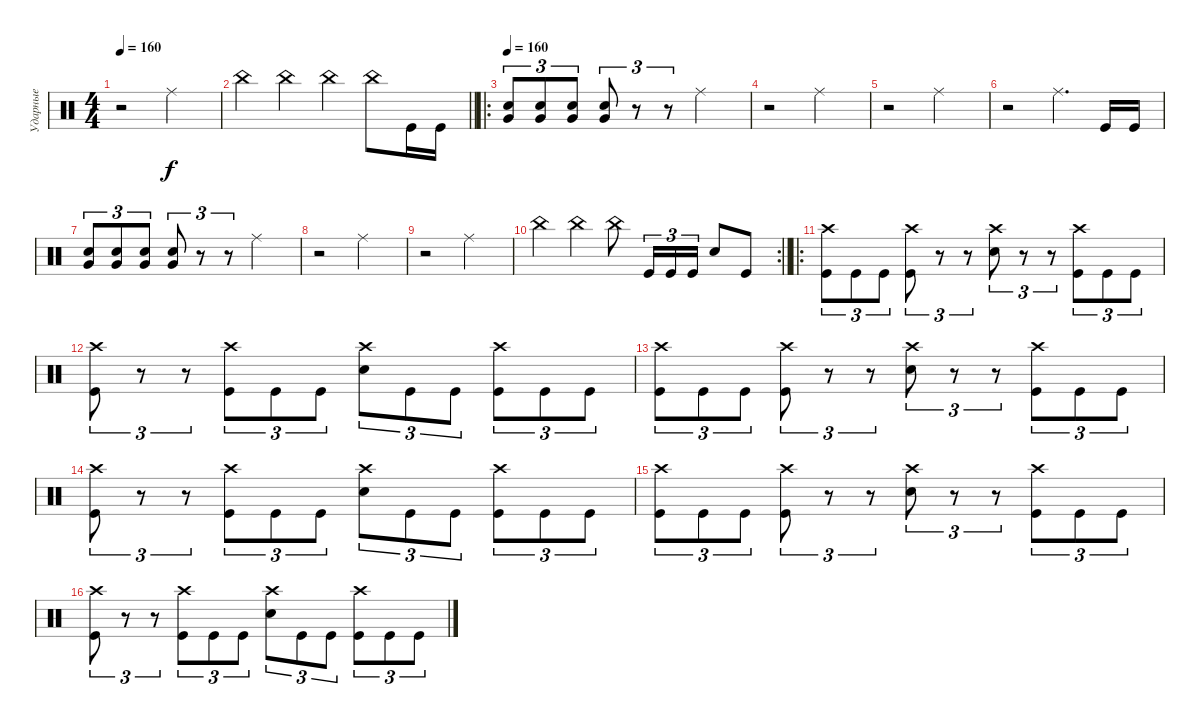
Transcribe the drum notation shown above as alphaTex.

\track ("Ударные" "Ударные") {instrument percussion}
\staff {score}
\articulation defaults
\ts (4 4)
\tempo 160
\clef neutral
\ks c
r.2{dy f} "Ride (middle)".2 |
\barLineRight lightlight "China (hit)".4 "China (hit)".4 "China (hit)".4 "China (hit)".8 "Kick (hit)".16 "Kick (hit)".16
|
\ro
\tempo 160
("Very Low Tom (hit)" "Snare (hit) 2").8{tu (3 2)} ("Very Low Tom (hit)" "Snare (hit) 2").8{tu (3 2)} ("Very Low Tom (hit)" "Snare (hit) 2").8{tu (3 2)} ("Very Low Tom (hit)" "Snare (hit) 2").8{tu (3 2)} r.8{tu (3 2)} r.8{tu (3 2)} "Ride (middle)".2 |
r.2 "Ride (middle)".2 |
r.2 "Ride (middle)".2 |
r.2 "Ride (middle)".4{d} "Kick (hit)".16 "Kick (hit)".16 |
("Very Low Tom (hit)" "Snare (hit) 2").8{tu (3 2)} ("Very Low Tom (hit)" "Snare (hit) 2").8{tu (3 2)} ("Very Low Tom (hit)" "Snare (hit) 2").8{tu (3 2)} ("Very Low Tom (hit)" "Snare (hit) 2").8{tu (3 2)} r.8{tu (3 2)} r.8{tu (3 2)} "Ride (middle)".2 |
r.2 "Ride (middle)".2 |
r.2 "Ride (middle)".2 |
\rc 2
\barLineRight lightlight "China (hit)".4 "China (hit)".4 "China (hit)".8 "Kick (hit)".16{tu (3 2)} "Kick (hit)".16{tu (3 2)} "Kick (hit)".16{tu (3 2)} "Snare (hit) 2".8 "Kick (hit)".8
|
\ro
("Crash high (hit)" "Kick (hit)").8{tu (3 2)} "Kick (hit)".8{tu (3 2)} "Kick (hit)".8{tu (3 2)} ("Crash high (hit)" "Kick (hit)").8{tu (3 2)} r.8{tu (3 2)} r.8{tu (3 2)} ("Crash high (hit)" "Snare (hit) 2").8{tu (3 2)} r.8{tu (3 2)} r.8{tu (3 2)} ("Crash high (hit)" "Kick (hit)").8{tu (3 2)} "Kick (hit)".8{tu (3 2)} "Kick (hit)".8{tu (3 2)} |
("Crash high (hit)" "Kick (hit)").8{tu (3 2)} r.8{tu (3 2)} r.8{tu (3 2)} ("Crash high (hit)" "Kick (hit)").8{tu (3 2)} "Kick (hit)".8{tu (3 2)} "Kick (hit)".8{tu (3 2)} ("Crash high (hit)" "Snare (hit) 2").8{tu (3 2)} "Kick (hit)".8{tu (3 2)} "Kick (hit)".8{tu (3 2)} ("Crash high (hit)" "Kick (hit)").8{tu (3 2)} "Kick (hit)".8{tu (3 2)} "Kick (hit)".8{tu (3 2)} |
("Crash high (hit)" "Kick (hit)").8{tu (3 2)} "Kick (hit)".8{tu (3 2)} "Kick (hit)".8{tu (3 2)} ("Crash high (hit)" "Kick (hit)").8{tu (3 2)} r.8{tu (3 2)} r.8{tu (3 2)} ("Crash high (hit)" "Snare (hit) 2").8{tu (3 2)} r.8{tu (3 2)} r.8{tu (3 2)} ("Crash high (hit)" "Kick (hit)").8{tu (3 2)} "Kick (hit)".8{tu (3 2)} "Kick (hit)".8{tu (3 2)} |
("Crash high (hit)" "Kick (hit)").8{tu (3 2)} r.8{tu (3 2)} r.8{tu (3 2)} ("Crash high (hit)" "Kick (hit)").8{tu (3 2)} "Kick (hit)".8{tu (3 2)} "Kick (hit)".8{tu (3 2)} ("Crash high (hit)" "Snare (hit) 2").8{tu (3 2)} "Kick (hit)".8{tu (3 2)} "Kick (hit)".8{tu (3 2)} ("Crash high (hit)" "Kick (hit)").8{tu (3 2)} "Kick (hit)".8{tu (3 2)} "Kick (hit)".8{tu (3 2)} |
("Crash high (hit)" "Kick (hit)").8{tu (3 2)} "Kick (hit)".8{tu (3 2)} "Kick (hit)".8{tu (3 2)} ("Crash high (hit)" "Kick (hit)").8{tu (3 2)} r.8{tu (3 2)} r.8{tu (3 2)} ("Crash high (hit)" "Snare (hit) 2").8{tu (3 2)} r.8{tu (3 2)} r.8{tu (3 2)} ("Crash high (hit)" "Kick (hit)").8{tu (3 2)} "Kick (hit)".8{tu (3 2)} "Kick (hit)".8{tu (3 2)} |
("Crash high (hit)" "Kick (hit)").8{tu (3 2)} r.8{tu (3 2)} r.8{tu (3 2)} ("Crash high (hit)" "Kick (hit)").8{tu (3 2)} "Kick (hit)".8{tu (3 2)} "Kick (hit)".8{tu (3 2)} ("Crash high (hit)" "Snare (hit) 2").8{tu (3 2)} "Kick (hit)".8{tu (3 2)} "Kick (hit)".8{tu (3 2)} ("Crash high (hit)" "Kick (hit)").8{tu (3 2)} "Kick (hit)".8{tu (3 2)} "Kick (hit)".8{tu (3 2)}
